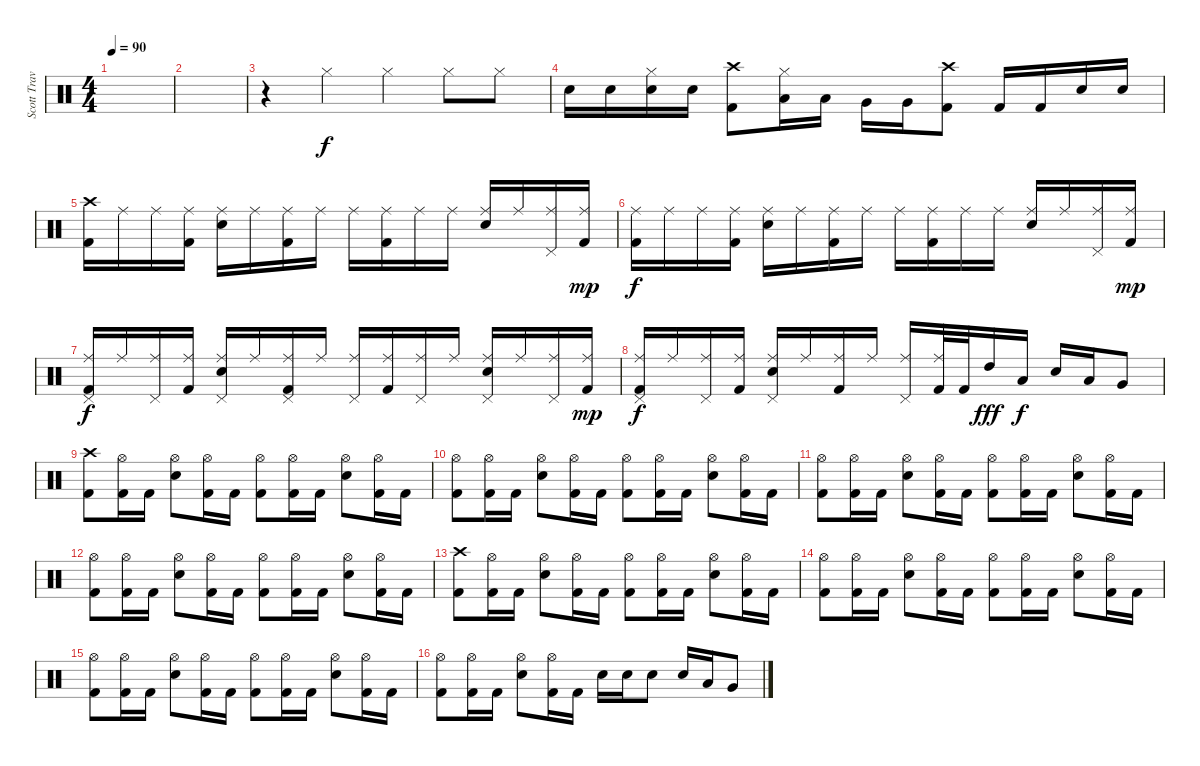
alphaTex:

\track ("Scott Travis" "Scott Trav") {instrument percussion}
\staff {score}
\articulation defaults
\ts (4 4)
\tempo 90
\clef neutral
\ks c
|
|
r.4 "Hi-Hat (closed)".4 "Hi-Hat (closed)".4 "Hi-Hat (closed)".8 "Hi-Hat (closed)".8 |
"Electric Snare (hit)".16 "Electric Snare (hit)".16 ("Electric Snare (hit)" "Hi-Hat (closed)").16 "Electric Snare (hit)".16 ("Kick (hit) 2" "Crash high (hit)").8 ("Low Tom (hit)" "Hi-Hat (closed)").16 "Low Tom (hit)".16 "Very Low Tom (hit)".16 "Very Low Tom (hit)".16 ("Kick (hit) 2" "Crash high (hit)").8 "Kick (hit) 2".16 "Kick (hit) 2".16 "Electric Snare (hit)".16 "Electric Snare (hit)".16 |
("Kick (hit) 2" "Crash high (hit)").16 "Ride (middle)".16 "Ride (middle)".16 ("Ride (middle)" "Kick (hit) 2").16 ("Ride (middle)" "Electric Snare (hit)").16 "Ride (middle)".16 ("Ride (middle)" "Kick (hit) 2").16 "Ride (middle)".16 "Ride (middle)".16 ("Ride (middle)" "Kick (hit) 2").16 "Ride (middle)".16 "Ride (middle)".16 ("Ride (middle)" "Electric Snare (hit)").16 "Ride (middle)".16 ("Ride (middle)" "Pedal Hi-Hat (hit)").16 ("Ride (middle)" "Kick (hit) 2").16{dy mp} |
("Kick (hit) 2" "Ride (middle)").16{dy f} "Ride (middle)".16 "Ride (middle)".16 ("Ride (middle)" "Kick (hit) 2").16 ("Ride (middle)" "Electric Snare (hit)").16 "Ride (middle)".16 ("Ride (middle)" "Kick (hit) 2").16 "Ride (middle)".16 "Ride (middle)".16 ("Ride (middle)" "Kick (hit) 2").16 "Ride (middle)".16 "Ride (middle)".16 ("Ride (middle)" "Electric Snare (hit)").16 "Ride (middle)".16 ("Ride (middle)" "Pedal Hi-Hat (hit)").16 ("Ride (middle)" "Kick (hit) 2").16{dy mp} |
("Kick (hit) 2" "Ride (middle)" "Pedal Hi-Hat (hit)").16{dy f} "Ride (middle)".16 ("Ride (middle)" "Pedal Hi-Hat (hit)").16 ("Ride (middle)" "Kick (hit) 2").16 ("Ride (middle)" "Electric Snare (hit)" "Pedal Hi-Hat (hit)").16 "Ride (middle)".16 ("Ride (middle)" "Kick (hit) 2" "Pedal Hi-Hat (hit)").16 "Ride (middle)".16 ("Ride (middle)" "Pedal Hi-Hat (hit)").16 ("Ride (middle)" "Kick (hit) 2").16 ("Ride (middle)" "Pedal Hi-Hat (hit)").16 "Ride (middle)".16 ("Ride (middle)" "Electric Snare (hit)" "Pedal Hi-Hat (hit)").16 "Ride (middle)".16 ("Ride (middle)" "Pedal Hi-Hat (hit)").16 ("Ride (middle)" "Kick (hit) 2").16{dy mp} |
("Kick (hit) 2" "Ride (middle)" "Pedal Hi-Hat (hit)").16{dy f} "Ride (middle)".16 ("Ride (middle)" "Pedal Hi-Hat (hit)").16 ("Ride (middle)" "Kick (hit) 2").16 ("Ride (middle)" "Electric Snare (hit)" "Pedal Hi-Hat (hit)").16 "Ride (middle)".16 ("Ride (middle)" "Kick (hit) 2").16 "Ride (middle)".16 ("Ride (middle)" "Pedal Hi-Hat (hit)").16 ("Ride (middle)" "Kick (hit) 2").32 "Kick (hit) 2".32 "High Tom (hit)".16{dy fff} "Low Tom (hit)".16{dy f} "Electric Snare (hit)".16 "Low Tom (hit)".16 "Very Low Tom (hit)".8 |
("Kick (hit) 2" "Crash high (hit)").8 ("Kick (hit) 2" "Hi-Hat (open)").16 "Kick (hit) 2".16 ("Electric Snare (hit)" "Hi-Hat (open)").8 ("Kick (hit) 2" "Hi-Hat (open)").16 "Kick (hit) 2".16 ("Kick (hit) 2" "Hi-Hat (open)").8 ("Kick (hit) 2" "Hi-Hat (open)").16 "Kick (hit) 2".16 ("Electric Snare (hit)" "Hi-Hat (open)").8 ("Kick (hit) 2" "Hi-Hat (open)").16 "Kick (hit) 2".16 |
("Kick (hit) 2" "Hi-Hat (open)").8 ("Kick (hit) 2" "Hi-Hat (open)").16 "Kick (hit) 2".16 ("Electric Snare (hit)" "Hi-Hat (open)").8 ("Kick (hit) 2" "Hi-Hat (open)").16 "Kick (hit) 2".16 ("Kick (hit) 2" "Hi-Hat (open)").8 ("Kick (hit) 2" "Hi-Hat (open)").16 "Kick (hit) 2".16 ("Electric Snare (hit)" "Hi-Hat (open)").8 ("Kick (hit) 2" "Hi-Hat (open)").16 "Kick (hit) 2".16 |
("Kick (hit) 2" "Hi-Hat (open)").8 ("Kick (hit) 2" "Hi-Hat (open)").16 "Kick (hit) 2".16 ("Electric Snare (hit)" "Hi-Hat (open)").8 ("Kick (hit) 2" "Hi-Hat (open)").16 "Kick (hit) 2".16 ("Kick (hit) 2" "Hi-Hat (open)").8 ("Kick (hit) 2" "Hi-Hat (open)").16 "Kick (hit) 2".16 ("Electric Snare (hit)" "Hi-Hat (open)").8 ("Kick (hit) 2" "Hi-Hat (open)").16 "Kick (hit) 2".16 |
("Kick (hit) 2" "Hi-Hat (open)").8 ("Kick (hit) 2" "Hi-Hat (open)").16 "Kick (hit) 2".16 ("Electric Snare (hit)" "Hi-Hat (open)").8 ("Kick (hit) 2" "Hi-Hat (open)").16 "Kick (hit) 2".16 ("Kick (hit) 2" "Hi-Hat (open)").8 ("Kick (hit) 2" "Hi-Hat (open)").16 "Kick (hit) 2".16 ("Electric Snare (hit)" "Hi-Hat (open)").8 ("Kick (hit) 2" "Hi-Hat (open)").16 "Kick (hit) 2".16 |
("Kick (hit) 2" "Crash high (hit)").8 ("Kick (hit) 2" "Hi-Hat (open)").16 "Kick (hit) 2".16 ("Electric Snare (hit)" "Hi-Hat (open)").8 ("Kick (hit) 2" "Hi-Hat (open)").16 "Kick (hit) 2".16 ("Kick (hit) 2" "Hi-Hat (open)").8 ("Kick (hit) 2" "Hi-Hat (open)").16 "Kick (hit) 2".16 ("Electric Snare (hit)" "Hi-Hat (open)").8 ("Kick (hit) 2" "Hi-Hat (open)").16 "Kick (hit) 2".16 |
("Kick (hit) 2" "Hi-Hat (open)").8 ("Kick (hit) 2" "Hi-Hat (open)").16 "Kick (hit) 2".16 ("Electric Snare (hit)" "Hi-Hat (open)").8 ("Kick (hit) 2" "Hi-Hat (open)").16 "Kick (hit) 2".16 ("Kick (hit) 2" "Hi-Hat (open)").8 ("Kick (hit) 2" "Hi-Hat (open)").16 "Kick (hit) 2".16 ("Electric Snare (hit)" "Hi-Hat (open)").8 ("Kick (hit) 2" "Hi-Hat (open)").16 "Kick (hit) 2".16 |
("Kick (hit) 2" "Hi-Hat (open)").8 ("Kick (hit) 2" "Hi-Hat (open)").16 "Kick (hit) 2".16 ("Electric Snare (hit)" "Hi-Hat (open)").8 ("Kick (hit) 2" "Hi-Hat (open)").16 "Kick (hit) 2".16 ("Kick (hit) 2" "Hi-Hat (open)").8 ("Kick (hit) 2" "Hi-Hat (open)").16 "Kick (hit) 2".16 ("Electric Snare (hit)" "Hi-Hat (open)").8 ("Kick (hit) 2" "Hi-Hat (open)").16 "Kick (hit) 2".16 |
("Kick (hit) 2" "Hi-Hat (open)").8 ("Kick (hit) 2" "Hi-Hat (open)").16 "Kick (hit) 2".16 ("Electric Snare (hit)" "Hi-Hat (open)").8 ("Kick (hit) 2" "Hi-Hat (open)").16 "Kick (hit) 2".16 "Electric Snare (hit)".16 "Electric Snare (hit)".16 "Electric Snare (hit)".8 "Electric Snare (hit)".16 "Low Tom (hit)".16 "Very Low Tom (hit)".8
